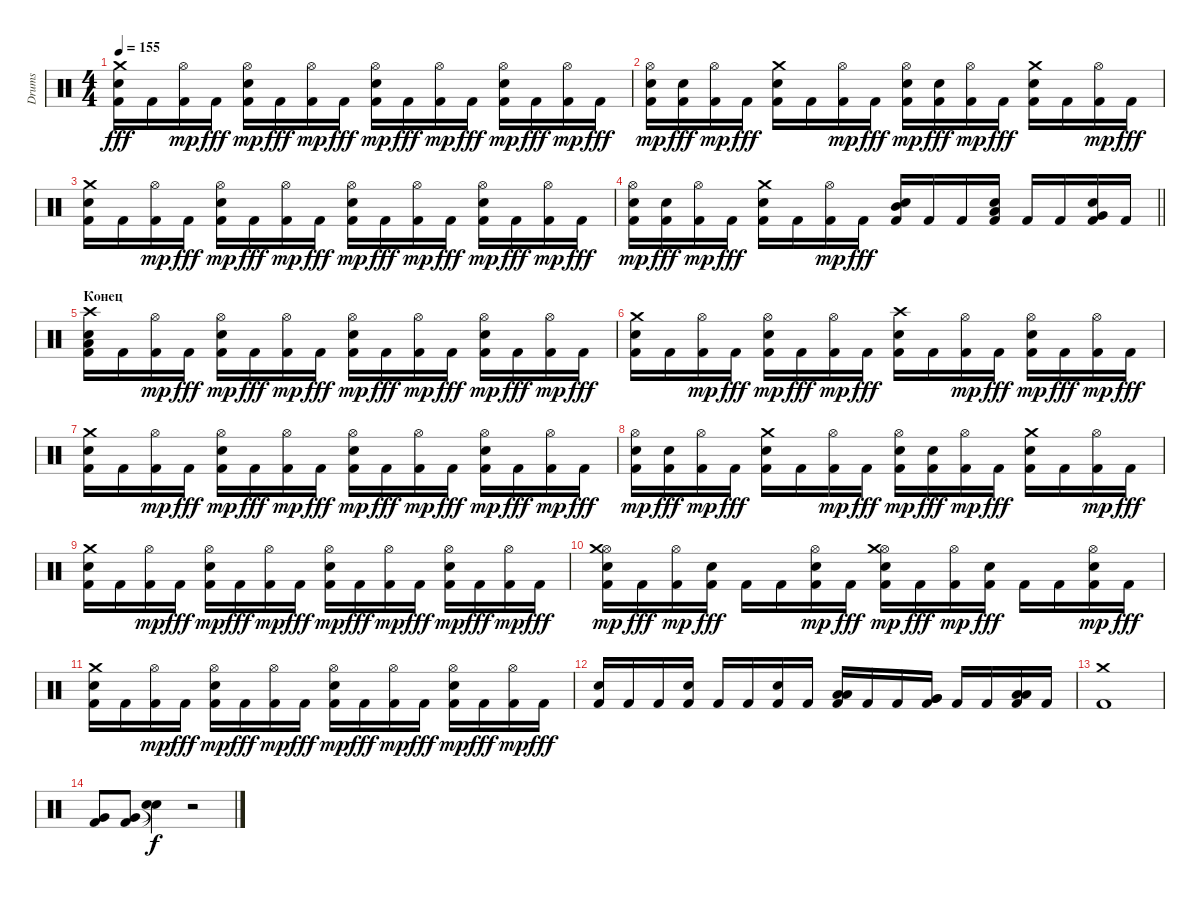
\track ("Drums" "Drums") {instrument percussion}
\staff {score}
\articulation defaults
\ts (4 4)
\tempo 155
\clef neutral
\ks c
("Kick (hit) 2" "Snare (hit) 2" "Crash medium (hit)").16{dy fff} "Kick (hit) 2".16 ("Kick (hit) 2" "Hi-Hat (open)").16{dy mp} "Kick (hit) 2".16{dy fff} ("Kick (hit) 2" "Hi-Hat (open)" "Snare (hit) 2").16{dy mp} "Kick (hit) 2".16{dy fff} ("Kick (hit) 2" "Hi-Hat (open)").16{dy mp} "Kick (hit) 2".16{dy fff} ("Kick (hit) 2" "Hi-Hat (open)" "Snare (hit) 2").16{dy mp} "Kick (hit) 2".16{dy fff} ("Kick (hit) 2" "Hi-Hat (open)").16{dy mp} "Kick (hit) 2".16{dy fff} ("Kick (hit) 2" "Hi-Hat (open)" "Snare (hit) 2").16{dy mp} "Kick (hit) 2".16{dy fff} ("Kick (hit) 2" "Hi-Hat (open)").16{dy mp} "Kick (hit) 2".16{dy fff} |
("Kick (hit) 2" "Hi-Hat (open)" "Snare (hit) 2").16{dy mp} ("Kick (hit) 2" "Snare (hit) 2").16{dy fff} ("Kick (hit) 2" "Hi-Hat (open)").16{dy mp} "Kick (hit) 2".16{dy fff} ("Kick (hit) 2" "Snare (hit) 2" "Crash medium (hit)").16 "Kick (hit) 2".16 ("Kick (hit) 2" "Hi-Hat (open)").16{dy mp} "Kick (hit) 2".16{dy fff} ("Kick (hit) 2" "Hi-Hat (open)" "Snare (hit) 2").16{dy mp} ("Kick (hit) 2" "Snare (hit) 2").16{dy fff} ("Kick (hit) 2" "Hi-Hat (open)").16{dy mp} "Kick (hit) 2".16{dy fff} ("Kick (hit) 2" "Snare (hit) 2" "Crash medium (hit)").16 "Kick (hit) 2".16 ("Kick (hit) 2" "Hi-Hat (open)").16{dy mp} "Kick (hit) 2".16{dy fff} |
("Kick (hit) 2" "Snare (hit) 2" "Crash medium (hit)").16 "Kick (hit) 2".16 ("Kick (hit) 2" "Hi-Hat (open)").16{dy mp} "Kick (hit) 2".16{dy fff} ("Kick (hit) 2" "Hi-Hat (open)" "Snare (hit) 2").16{dy mp} "Kick (hit) 2".16{dy fff} ("Kick (hit) 2" "Hi-Hat (open)").16{dy mp} "Kick (hit) 2".16{dy fff} ("Kick (hit) 2" "Hi-Hat (open)" "Snare (hit) 2").16{dy mp} "Kick (hit) 2".16{dy fff} ("Kick (hit) 2" "Hi-Hat (open)").16{dy mp} "Kick (hit) 2".16{dy fff} ("Kick (hit) 2" "Hi-Hat (open)" "Snare (hit) 2").16{dy mp} "Kick (hit) 2".16{dy fff} ("Kick (hit) 2" "Hi-Hat (open)").16{dy mp} "Kick (hit) 2".16{dy fff} |
\barLineRight lightlight
("Kick (hit) 2" "Hi-Hat (open)" "Snare (hit) 2").16{dy mp} ("Kick (hit) 2" "Snare (hit) 2").16{dy fff} ("Kick (hit) 2" "Hi-Hat (open)").16{dy mp} "Kick (hit) 2".16{dy fff} ("Kick (hit) 2" "Snare (hit) 2" "Crash medium (hit)").16 "Kick (hit) 2".16 ("Kick (hit) 2" "Hi-Hat (open)").16{dy mp} "Kick (hit) 2".16{dy fff} ("Kick (hit) 2" "Mid Tom (hit)" "Snare (hit) 2").16 "Kick (hit) 2".16 "Kick (hit) 2".16 ("Kick (hit) 2" "Low Tom (hit)" "Snare (hit) 2").16 "Kick (hit) 2".16 "Kick (hit) 2".16 ("Kick (hit) 2" "Very Low Tom (hit)" "Snare (hit) 2").16 "Kick (hit) 2".16 |
\section ("" "Конец")
("Kick (hit) 2" "Low Floor Tom (hit)" "Snare (hit) 2" "Crash high (hit)").16 "Kick (hit) 2".16 ("Kick (hit) 2" "Hi-Hat (open)").16{dy mp} "Kick (hit) 2".16{dy fff} ("Kick (hit) 2" "Hi-Hat (open)" "Snare (hit) 2").16{dy mp} "Kick (hit) 2".16{dy fff} ("Kick (hit) 2" "Hi-Hat (open)").16{dy mp} "Kick (hit) 2".16{dy fff} ("Kick (hit) 2" "Hi-Hat (open)" "Snare (hit) 2").16{dy mp} "Kick (hit) 2".16{dy fff} ("Kick (hit) 2" "Hi-Hat (open)").16{dy mp} "Kick (hit) 2".16{dy fff} ("Kick (hit) 2" "Hi-Hat (open)" "Snare (hit) 2").16{dy mp} "Kick (hit) 2".16{dy fff} ("Kick (hit) 2" "Hi-Hat (open)").16{dy mp} "Kick (hit) 2".16{dy fff} |
("Kick (hit) 2" "Snare (hit) 2" "Crash medium (hit)").16 "Kick (hit) 2".16 ("Kick (hit) 2" "Hi-Hat (open)").16{dy mp} "Kick (hit) 2".16{dy fff} ("Kick (hit) 2" "Hi-Hat (open)" "Snare (hit) 2").16{dy mp} "Kick (hit) 2".16{dy fff} ("Kick (hit) 2" "Hi-Hat (open)").16{dy mp} "Kick (hit) 2".16{dy fff} ("Kick (hit) 2" "Snare (hit) 2" "Crash high (hit)").16 "Kick (hit) 2".16 ("Kick (hit) 2" "Hi-Hat (open)").16{dy mp} "Kick (hit) 2".16{dy fff} ("Kick (hit) 2" "Hi-Hat (open)" "Snare (hit) 2").16{dy mp} "Kick (hit) 2".16{dy fff} ("Kick (hit) 2" "Hi-Hat (open)").16{dy mp} "Kick (hit) 2".16{dy fff} |
("Kick (hit) 2" "Snare (hit) 2" "Crash medium (hit)").16 "Kick (hit) 2".16 ("Kick (hit) 2" "Hi-Hat (open)").16{dy mp} "Kick (hit) 2".16{dy fff} ("Kick (hit) 2" "Hi-Hat (open)" "Snare (hit) 2").16{dy mp} "Kick (hit) 2".16{dy fff} ("Kick (hit) 2" "Hi-Hat (open)").16{dy mp} "Kick (hit) 2".16{dy fff} ("Kick (hit) 2" "Hi-Hat (open)" "Snare (hit) 2").16{dy mp} "Kick (hit) 2".16{dy fff} ("Kick (hit) 2" "Hi-Hat (open)").16{dy mp} "Kick (hit) 2".16{dy fff} ("Kick (hit) 2" "Hi-Hat (open)" "Snare (hit) 2").16{dy mp} "Kick (hit) 2".16{dy fff} ("Kick (hit) 2" "Hi-Hat (open)").16{dy mp} "Kick (hit) 2".16{dy fff} |
("Kick (hit) 2" "Hi-Hat (open)" "Snare (hit) 2").16{dy mp} ("Kick (hit) 2" "Snare (hit) 2").16{dy fff} ("Kick (hit) 2" "Hi-Hat (open)").16{dy mp} "Kick (hit) 2".16{dy fff} ("Kick (hit) 2" "Snare (hit) 2" "Crash medium (hit)").16 "Kick (hit) 2".16 ("Kick (hit) 2" "Hi-Hat (open)").16{dy mp} "Kick (hit) 2".16{dy fff} ("Kick (hit) 2" "Hi-Hat (open)" "Snare (hit) 2").16{dy mp} ("Kick (hit) 2" "Snare (hit) 2").16{dy fff} ("Kick (hit) 2" "Hi-Hat (open)").16{dy mp} "Kick (hit) 2".16{dy fff} ("Kick (hit) 2" "Snare (hit) 2" "Crash medium (hit)").16 "Kick (hit) 2".16 ("Kick (hit) 2" "Hi-Hat (open)").16{dy mp} "Kick (hit) 2".16{dy fff} |
("Kick (hit) 2" "Snare (hit) 2" "Crash medium (hit)").16 "Kick (hit) 2".16 ("Kick (hit) 2" "Hi-Hat (open)").16{dy mp} "Kick (hit) 2".16{dy fff} ("Kick (hit) 2" "Hi-Hat (open)" "Snare (hit) 2").16{dy mp} "Kick (hit) 2".16{dy fff} ("Kick (hit) 2" "Hi-Hat (open)").16{dy mp} "Kick (hit) 2".16{dy fff} ("Kick (hit) 2" "Hi-Hat (open)" "Snare (hit) 2").16{dy mp} "Kick (hit) 2".16{dy fff} ("Kick (hit) 2" "Hi-Hat (open)").16{dy mp} "Kick (hit) 2".16{dy fff} ("Kick (hit) 2" "Hi-Hat (open)" "Snare (hit) 2").16{dy mp} "Kick (hit) 2".16{dy fff} ("Kick (hit) 2" "Hi-Hat (open)").16{dy mp} "Kick (hit) 2".16{dy fff} |
("Kick (hit) 2" "Hi-Hat (open)" "Snare (hit) 2" "Crash medium (hit)").16{dy mp} "Kick (hit) 2".16{dy fff} ("Kick (hit) 2" "Hi-Hat (open)").16{dy mp} ("Kick (hit) 2" "Snare (hit) 2").16{dy fff} "Kick (hit) 2".16 "Kick (hit) 2".16 ("Kick (hit) 2" "Hi-Hat (open)" "Snare (hit) 2").16{dy mp} "Kick (hit) 2".16{dy fff} ("Kick (hit) 2" "Hi-Hat (open)" "Snare (hit) 2" "Crash medium (hit)").16{dy mp} "Kick (hit) 2".16{dy fff} ("Kick (hit) 2" "Hi-Hat (open)").16{dy mp} ("Kick (hit) 2" "Snare (hit) 2").16{dy fff} "Kick (hit) 2".16 "Kick (hit) 2".16 ("Kick (hit) 2" "Hi-Hat (open)" "Snare (hit) 2").16{dy mp} "Kick (hit) 2".16{dy fff} |
("Kick (hit) 2" "Snare (hit) 2" "Crash medium (hit)").16 "Kick (hit) 2".16 ("Kick (hit) 2" "Hi-Hat (open)").16{dy mp} "Kick (hit) 2".16{dy fff} ("Kick (hit) 2" "Hi-Hat (open)" "Snare (hit) 2").16{dy mp} "Kick (hit) 2".16{dy fff} ("Kick (hit) 2" "Hi-Hat (open)").16{dy mp} "Kick (hit) 2".16{dy fff} ("Kick (hit) 2" "Hi-Hat (open)" "Snare (hit) 2").16{dy mp} "Kick (hit) 2".16{dy fff} ("Kick (hit) 2" "Hi-Hat (open)").16{dy mp} "Kick (hit) 2".16{dy fff} ("Kick (hit) 2" "Hi-Hat (open)" "Snare (hit) 2").16{dy mp} "Kick (hit) 2".16{dy fff} ("Kick (hit) 2" "Hi-Hat (open)").16{dy mp} "Kick (hit) 2".16{dy fff} |
("Kick (hit) 2" "Snare (hit) 2").16 "Kick (hit) 2".16 "Kick (hit) 2".16 ("Kick (hit) 2" "Snare (hit) 2").16 "Kick (hit) 2".16 "Kick (hit) 2".16 ("Kick (hit) 2" "Snare (hit) 2").16 "Kick (hit) 2".16 ("Kick (hit) 2" "Low Tom (hit)" "Low Tom (hit)").16 "Kick (hit) 2".16 "Kick (hit) 2".16 ("Kick (hit) 2" "Very Low Tom (hit)" "Very Low Tom (hit)").16 "Kick (hit) 2".16 "Kick (hit) 2".16 ("Kick (hit) 2" "Low Floor Tom (hit)" "Low Floor Tom (hit)").16 "Kick (hit) 2".16 |
("Kick (hit) 2" "Crash medium (hit)").1 |
("Kick (hit) 2" "Very Low Tom (hit)").8 ("Kick (hit) 2" "Very Low Tom (hit)").8 ("Snare (hit)"{t} "Snare (hit)"{t}).4{dy f} r.2
